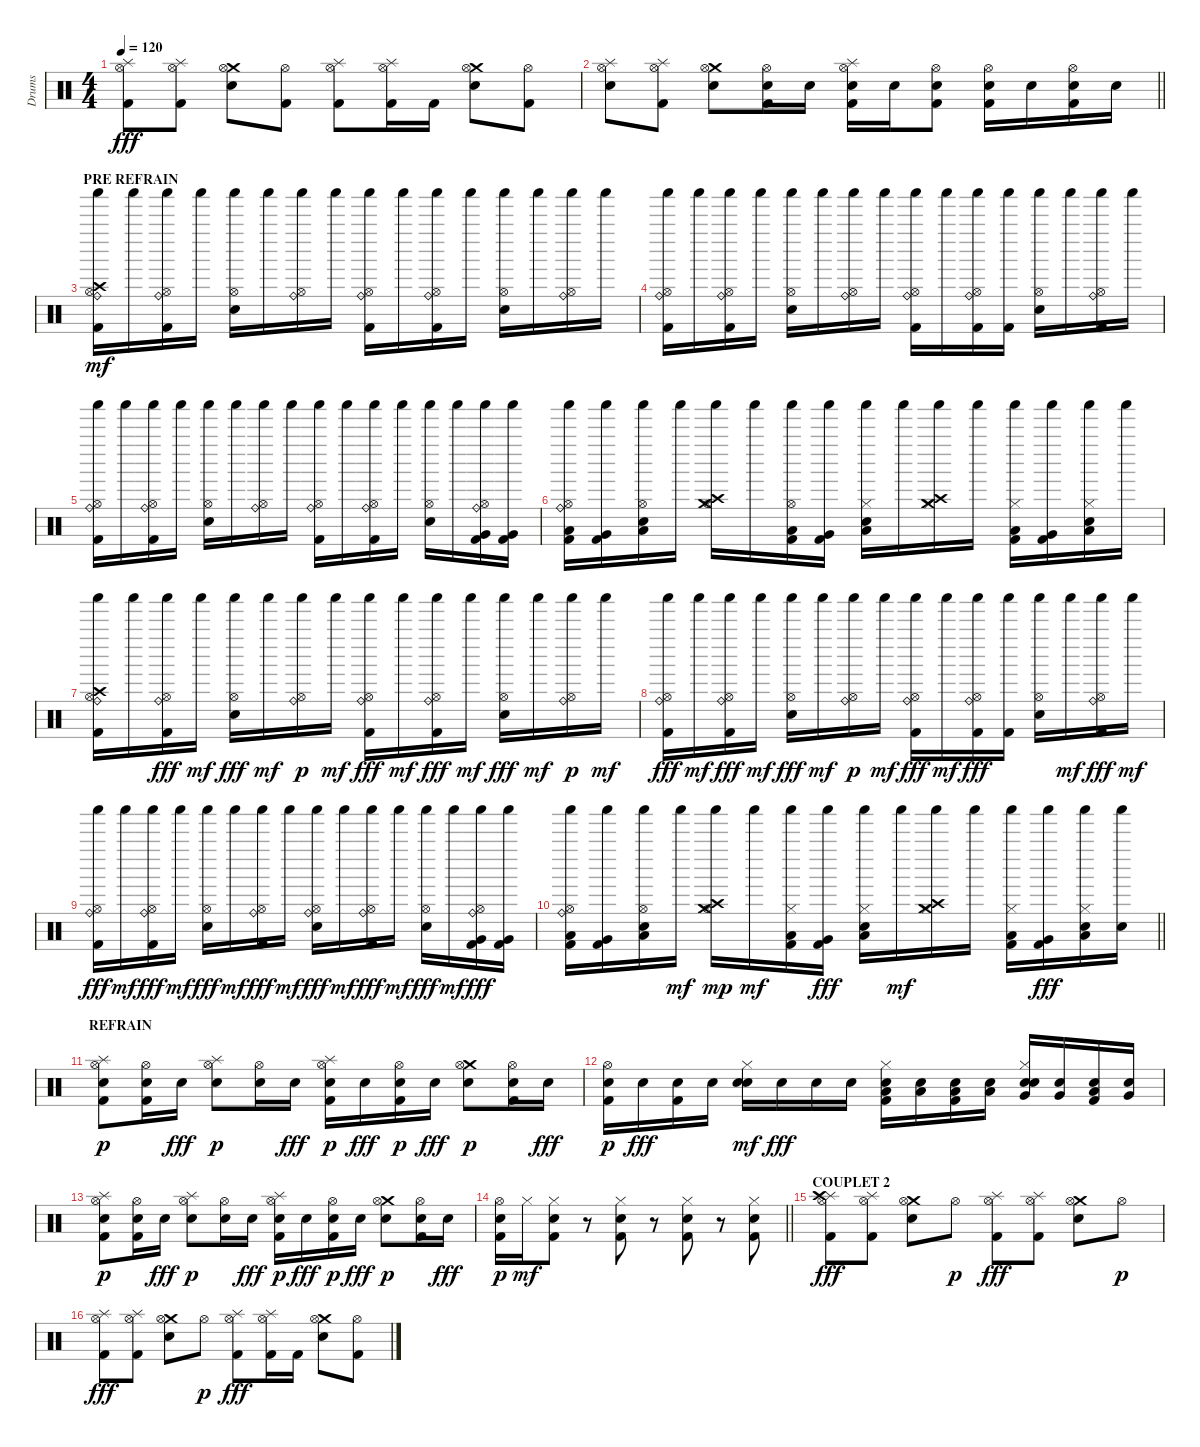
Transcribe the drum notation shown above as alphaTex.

\track ("Drums" "Drums") {instrument percussion}
\staff {score}
\articulation defaults
\ts (4 4)
\tempo 120
\clef neutral
\ks c
("Splash (hit)" "Hi-Hat (open)" "Kick (hit) 2").8{dy fff} ("Splash (hit)" "Hi-Hat (open)" "Kick (hit) 2").8 ("Crash medium (hit)" "Hi-Hat (open)" "Snare (hit) 2").8 ("Hi-Hat (open)" "Kick (hit) 2").8 ("Splash (hit)" "Hi-Hat (open)" "Kick (hit) 2").8 ("Splash (hit)" "Hi-Hat (open)" "Kick (hit) 2").16 "Kick (hit) 2".16 ("Crash medium (hit)" "Hi-Hat (open)" "Snare (hit) 2").8 ("Hi-Hat (open)" "Kick (hit) 2").8 |
\barLineRight lightlight
("Splash (hit)" "Hi-Hat (open)" "Snare (hit) 2").8 ("Splash (hit)" "Hi-Hat (open)" "Kick (hit) 2").8 ("Crash medium (hit)" "Hi-Hat (open)" "Snare (hit) 2").8 ("Hi-Hat (open)" "Snare (hit) 2" "Kick (hit) 2").16 "Snare (hit) 2".16 ("Splash (hit)" "Hi-Hat (open)" "Snare (hit) 2" "Kick (hit) 2").16 "Snare (hit) 2".16 ("Hi-Hat (open)" "Snare (hit) 2" "Kick (hit) 2").8 ("Hi-Hat (open)" "Snare (hit) 2" "Kick (hit) 2").16 "Snare (hit) 2".16 ("Hi-Hat (open)" "Snare (hit) 2" "Kick (hit) 2").16 "Snare (hit) 2".16 |
\section ("" "PRE REFRAIN")
("Ride (bell)" "Hi-Hat (open)" "Kick (hit) 2" "Crash high (hit)" "Shaker (hit)").16{dy mf} "Shaker (hit)".16 ("Ride (bell)" "Hi-Hat (open)" "Kick (hit) 2" "Shaker (hit)").16 "Shaker (hit)".16 ("Hi-Hat (open)" "Snare (hit) 2" "Shaker (hit)").16 "Shaker (hit)".16 ("Ride (bell)" "Hi-Hat (open)" "Shaker (hit)").16 "Shaker (hit)".16 ("Ride (bell)" "Hi-Hat (open)" "Kick (hit) 2" "Shaker (hit)").16 "Shaker (hit)".16 ("Ride (bell)" "Hi-Hat (open)" "Kick (hit) 2" "Shaker (hit)").16 "Shaker (hit)".16 ("Hi-Hat (open)" "Snare (hit) 2" "Shaker (hit)").16 "Shaker (hit)".16 ("Ride (bell)" "Hi-Hat (open)" "Shaker (hit)").16 "Shaker (hit)".16 |
("Ride (bell)" "Hi-Hat (open)" "Kick (hit) 2" "Shaker (hit)").16 "Shaker (hit)".16 ("Ride (bell)" "Hi-Hat (open)" "Kick (hit) 2" "Shaker (hit)").16 "Shaker (hit)".16 ("Hi-Hat (open)" "Snare (hit) 2" "Shaker (hit)").16 "Shaker (hit)".16 ("Ride (bell)" "Hi-Hat (open)" "Shaker (hit)").16 "Shaker (hit)".16 ("Ride (bell)" "Hi-Hat (open)" "Kick (hit) 2" "Shaker (hit)").16 "Shaker (hit)".16 ("Ride (bell)" "Hi-Hat (open)" "Kick (hit) 2" "Shaker (hit)").16 ("Kick (hit) 2" "Shaker (hit)").16 ("Hi-Hat (open)" "Snare (hit) 2" "Shaker (hit)").16 "Shaker (hit)".16 ("Ride (bell)" "Hi-Hat (open)" "Kick (hit) 2" "Shaker (hit)").16 "Shaker (hit)".16 |
("Ride (bell)" "Hi-Hat (open)" "Kick (hit) 2" "Shaker (hit)").16 "Shaker (hit)".16 ("Ride (bell)" "Hi-Hat (open)" "Kick (hit) 2" "Shaker (hit)").16 "Shaker (hit)".16 ("Hi-Hat (open)" "Snare (hit) 2" "Shaker (hit)").16 "Shaker (hit)".16 ("Ride (bell)" "Hi-Hat (open)" "Shaker (hit)").16 "Shaker (hit)".16 ("Ride (bell)" "Hi-Hat (open)" "Kick (hit) 2" "Shaker (hit)").16 "Shaker (hit)".16 ("Ride (bell)" "Hi-Hat (open)" "Kick (hit) 2" "Shaker (hit)").16 "Shaker (hit)".16 ("Hi-Hat (open)" "Snare (hit) 2" "Shaker (hit)").16 "Shaker (hit)".16 ("Ride (bell)" "Hi-Hat (open)" "Kick (hit) 2" "Very Low Tom (hit)" "Shaker (hit)").16 ("Very Low Tom (hit)" "Kick (hit) 2" "Shaker (hit)").16 |
("Ride (bell)" "Hi-Hat (open)" "Kick (hit) 2" "Low Tom (hit)" "Shaker (hit)").16 ("Kick (hit) 2" "Very Low Tom (hit)" "Shaker (hit)").16 ("Hi-Hat (open)" "Snare (hit) 2" "Low Floor Tom (hit)" "Shaker (hit)").16 "Shaker (hit)".16 ("Hi-Hat (open)" "Crash medium (hit)" "Crash high (hit)" "Shaker (hit)").16 "Shaker (hit)".16 ("Hi-Hat (open)" "Low Tom (hit)" "Kick (hit) 2" "Shaker (hit)").16 ("Very Low Tom (hit)" "Kick (hit) 2" "Shaker (hit)").16 ("Hi-Hat (closed)" "Low Floor Tom (hit)" "Snare (hit) 2" "Shaker (hit)").16 "Shaker (hit)".16 ("Crash medium (hit)" "Crash high (hit)" "Hi-Hat (closed)" "Shaker (hit)").16 "Shaker (hit)".16 ("Low Tom (hit)" "Kick (hit) 2" "Hi-Hat (closed)" "Shaker (hit)").16 ("Very Low Tom (hit)" "Kick (hit) 2" "Shaker (hit)").16 ("Hi-Hat (closed)" "Low Floor Tom (hit)" "Snare (hit) 2" "Shaker (hit)").16 "Shaker (hit)".16 |
("Ride (bell)" "Shaker (hit)" "Hi-Hat (open)" "Kick (hit) 2" "Crash high (hit)").16 "Shaker (hit)".16 ("Ride (bell)" "Shaker (hit)" "Hi-Hat (open)" "Kick (hit) 2").16{dy fff} "Shaker (hit)".16{dy mf} ("Shaker (hit)" "Hi-Hat (open)" "Snare (hit) 2").16{dy fff} "Shaker (hit)".16{dy mf} ("Ride (bell)" "Shaker (hit)" "Hi-Hat (open)").16{dy p} "Shaker (hit)".16{dy mf} ("Ride (bell)" "Shaker (hit)" "Hi-Hat (open)" "Kick (hit) 2").16{dy fff} "Shaker (hit)".16{dy mf} ("Ride (bell)" "Shaker (hit)" "Hi-Hat (open)" "Kick (hit) 2").16{dy fff} "Shaker (hit)".16{dy mf} ("Shaker (hit)" "Hi-Hat (open)" "Snare (hit) 2").16{dy fff} "Shaker (hit)".16{dy mf} ("Ride (bell)" "Shaker (hit)" "Hi-Hat (open)").16{dy p} "Shaker (hit)".16{dy mf} |
("Ride (bell)" "Shaker (hit)" "Hi-Hat (open)" "Kick (hit) 2").16{dy fff} "Shaker (hit)".16{dy mf} ("Ride (bell)" "Shaker (hit)" "Hi-Hat (open)" "Kick (hit) 2").16{dy fff} "Shaker (hit)".16{dy mf} ("Shaker (hit)" "Hi-Hat (open)" "Snare (hit) 2").16{dy fff} "Shaker (hit)".16{dy mf} ("Ride (bell)" "Shaker (hit)" "Hi-Hat (open)").16{dy p} "Shaker (hit)".16{dy mf} ("Ride (bell)" "Shaker (hit)" "Hi-Hat (open)" "Kick (hit) 2").16{dy fff} "Shaker (hit)".16{dy mf} ("Ride (bell)" "Shaker (hit)" "Hi-Hat (open)" "Kick (hit) 2").16{dy fff} ("Shaker (hit)" "Kick (hit) 2").16 ("Shaker (hit)" "Hi-Hat (open)" "Snare (hit) 2").16 "Shaker (hit)".16{dy mf} ("Ride (bell)" "Shaker (hit)" "Hi-Hat (open)" "Kick (hit) 2").16{dy fff} "Shaker (hit)".16{dy mf} |
("Ride (bell)" "Shaker (hit)" "Hi-Hat (open)" "Kick (hit) 2").16{dy fff} "Shaker (hit)".16{dy mf} ("Ride (bell)" "Shaker (hit)" "Hi-Hat (open)" "Kick (hit) 2").16{dy fff} "Shaker (hit)".16{dy mf} ("Shaker (hit)" "Hi-Hat (open)" "Snare (hit) 2").16{dy fff} "Shaker (hit)".16{dy mf} ("Ride (bell)" "Shaker (hit)" "Hi-Hat (open)" "Kick (hit) 2").16{dy fff} "Shaker (hit)".16{dy mf} ("Ride (bell)" "Shaker (hit)" "Hi-Hat (open)" "Snare (hit) 2").16{dy fff} "Shaker (hit)".16{dy mf} ("Ride (bell)" "Shaker (hit)" "Hi-Hat (open)" "Kick (hit) 2").16{dy fff} "Shaker (hit)".16{dy mf} ("Shaker (hit)" "Hi-Hat (open)" "Snare (hit) 2").16{dy fff} "Shaker (hit)".16{dy mf} ("Ride (bell)" "Shaker (hit)" "Hi-Hat (open)" "Kick (hit) 2" "Very Low Tom (hit)").16{dy fff} ("Shaker (hit)" "Very Low Tom (hit)" "Kick (hit) 2").16 |
\barLineRight lightlight
("Ride (bell)" "Shaker (hit)" "Hi-Hat (open)" "Kick (hit) 2" "Low Tom (hit)").16 ("Shaker (hit)" "Kick (hit) 2" "Very Low Tom (hit)").16 ("Shaker (hit)" "Hi-Hat (open)" "Snare (hit) 2" "Low Floor Tom (hit)").16 "Shaker (hit)".16{dy mf} ("Shaker (hit)" "Hi-Hat (open)" "Crash medium (hit)" "Crash high (hit)").16{dy mp} "Shaker (hit)".16{dy mf} ("Shaker (hit)" "Low Tom (hit)" "Kick (hit) 2" "Hi-Hat (closed)").16 ("Shaker (hit)" "Very Low Tom (hit)" "Kick (hit) 2").16{dy fff} ("Shaker (hit)" "Hi-Hat (closed)" "Low Floor Tom (hit)" "Snare (hit) 2").16 "Shaker (hit)".16{dy mf} ("Shaker (hit)" "Crash medium (hit)" "Crash high (hit)" "Hi-Hat (closed)").16 "Shaker (hit)".16 ("Shaker (hit)" "Low Tom (hit)" "Kick (hit) 2" "Hi-Hat (closed)").16 ("Shaker (hit)" "Very Low Tom (hit)" "Kick (hit) 2").16{dy fff} ("Shaker (hit)" "Hi-Hat (closed)" "Low Floor Tom (hit)" "Snare (hit) 2").16 ("Shaker (hit)" "Snare (hit) 2").16 |
\section ("" "REFRAIN")
("Splash (hit)" "Kick (hit) 2" "Snare (hit) 2" "Hi-Hat (open)").8{dy p} ("Kick (hit) 2" "Snare (hit) 2" "Hi-Hat (open)").16 "Snare (hit) 2".16{dy fff} ("Splash (hit)" "Electric Snare (hit)" "Hi-Hat (open)").8{dy p} ("Snare (hit) 2" "Hi-Hat (open)").16 "Snare (hit) 2".16{dy fff} ("Splash (hit)" "Kick (hit) 2" "Snare (hit) 2" "Hi-Hat (open)").16{dy p} "Snare (hit) 2".16{dy fff} ("Kick (hit) 2" "Snare (hit) 2" "Hi-Hat (open)").16{dy p} "Snare (hit) 2".16{dy fff} ("Crash medium (hit)" "Electric Snare (hit)" "Hi-Hat (open)").8{dy p} ("Kick (hit) 2" "Snare (hit) 2" "Hi-Hat (open)").16 "Snare (hit) 2".16{dy fff} |
("Kick (hit) 2" "Snare (hit) 2" "Hi-Hat (open)").16{dy p} "Snare (hit) 2".16{dy fff} ("Kick (hit) 2" "Snare (hit) 2").16 "Snare (hit) 2".16 ("Snare (hit) 2" "Electric Snare (hit)" "Hi-Hat (closed)").16{dy mf} "Snare (hit) 2".16{dy fff} "Snare (hit) 2".16 "Snare (hit) 2".16 ("Kick (hit) 2" "Snare (hit) 2" "Hi-Hat (closed)" "Low Tom (hit)").16 ("Snare (hit) 2" "Low Tom (hit)").16 ("Kick (hit) 2" "Snare (hit) 2" "Low Tom (hit)").16 ("Snare (hit) 2" "Low Tom (hit)").16 ("Snare (hit) 2" "Electric Snare (hit)" "Hi-Hat (closed)" "Very Low Tom (hit)").16 ("Snare (hit) 2" "Very Low Tom (hit)").16 ("Kick (hit) 2" "Snare (hit) 2" "Low Floor Tom (hit)").16 ("Snare (hit) 2" "Very Low Tom (hit)").16 |
("Splash (hit)" "Kick (hit) 2" "Snare (hit) 2" "Hi-Hat (open)").8{dy p} ("Kick (hit) 2" "Snare (hit) 2" "Hi-Hat (open)").16 "Snare (hit) 2".16{dy fff} ("Splash (hit)" "Electric Snare (hit)" "Hi-Hat (open)").8{dy p} ("Snare (hit) 2" "Hi-Hat (open)").16 "Snare (hit) 2".16{dy fff} ("Splash (hit)" "Kick (hit) 2" "Snare (hit) 2" "Hi-Hat (open)").16{dy p} "Snare (hit) 2".16{dy fff} ("Kick (hit) 2" "Snare (hit) 2" "Hi-Hat (open)").16{dy p} "Snare (hit) 2".16{dy fff} ("Crash medium (hit)" "Electric Snare (hit)" "Hi-Hat (open)").8{dy p} ("Kick (hit) 2" "Snare (hit) 2" "Hi-Hat (open)").16 "Snare (hit) 2".16{dy fff} |
\barLineRight lightlight
("Kick (hit) 2" "Snare (hit) 2" "Hi-Hat (open)").16{dy p} "Hi-Hat (closed)".16{dy mf} ("Kick (hit) 2" "Snare (hit) 2" "Hi-Hat (closed)").8 r.8 ("Kick (hit) 2" "Snare (hit) 2" "Hi-Hat (closed)").8 r.8 ("Kick (hit) 2" "Snare (hit) 2" "Hi-Hat (closed)").8 r.8 ("Kick (hit) 2" "Snare (hit) 2" "Hi-Hat (closed)").8 |
\section ("" "COUPLET 2")
("Splash (hit)" "Hi-Hat (open)" "Crash high (hit)" "Kick (hit) 2").8{dy fff} ("Splash (hit)" "Hi-Hat (open)" "Kick (hit) 2").8 ("Crash medium (hit)" "Hi-Hat (open)" "Snare (hit) 2").8 "Hi-Hat (open)".8{dy p} ("Splash (hit)" "Hi-Hat (open)" "Kick (hit) 2").8{dy fff} ("Splash (hit)" "Hi-Hat (open)" "Kick (hit) 2").8 ("Crash medium (hit)" "Hi-Hat (open)" "Snare (hit) 2").8 "Hi-Hat (open)".8{dy p} |
("Splash (hit)" "Hi-Hat (open)" "Kick (hit) 2").8{dy fff} ("Splash (hit)" "Hi-Hat (open)" "Kick (hit) 2").8 ("Crash medium (hit)" "Hi-Hat (open)" "Snare (hit) 2").8 "Hi-Hat (open)".8{dy p} ("Splash (hit)" "Hi-Hat (open)" "Kick (hit) 2").8{dy fff} ("Splash (hit)" "Hi-Hat (open)" "Kick (hit) 2").16 "Kick (hit) 2".16 ("Crash medium (hit)" "Hi-Hat (open)" "Snare (hit) 2").8 ("Hi-Hat (open)" "Kick (hit) 2").8
